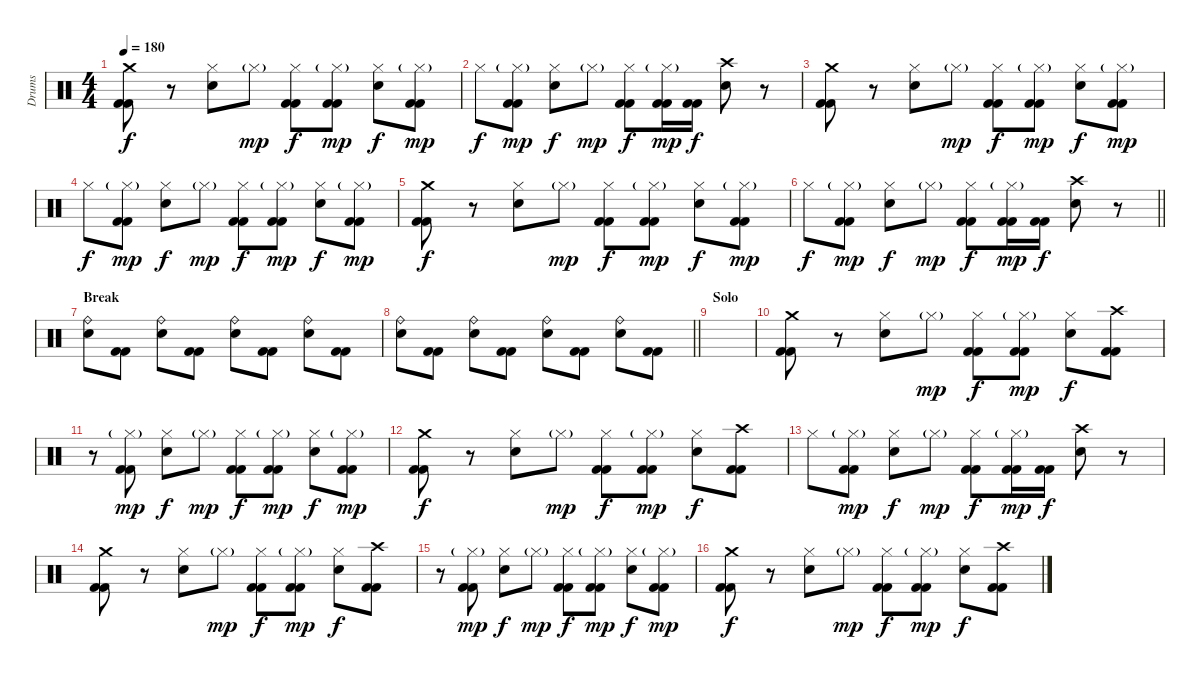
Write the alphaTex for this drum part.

\track ("Drums" "Drums") {instrument percussion}
\staff {score}
\articulation defaults
\ts (4 4)
\tempo 180
\clef neutral
\ks c
("Crash medium (hit)" "Kick (hit) 2" "Kick (hit) 2").8{dy f} r.8 ("Hi-Hat (closed)" "Snare (hit) 2").8 "Hi-Hat (closed)"{g}.8{dy mp} ("Hi-Hat (closed)" "Kick (hit) 2" "Kick (hit) 2").8{dy f} ("Hi-Hat (closed)"{g} "Kick (hit) 2" "Kick (hit) 2").8{dy mp} ("Hi-Hat (closed)" "Snare (hit) 2").8{dy f} ("Hi-Hat (closed)"{g} "Kick (hit) 2" "Kick (hit) 2").8{dy mp} |
"Hi-Hat (closed)".8{dy f} ("Hi-Hat (closed)"{g} "Kick (hit) 2" "Kick (hit) 2").8{dy mp} ("Hi-Hat (closed)" "Snare (hit) 2").8{dy f} "Hi-Hat (closed)"{g}.8{dy mp} ("Hi-Hat (closed)" "Kick (hit) 2" "Kick (hit) 2").8{dy f} ("Hi-Hat (closed)"{g} "Kick (hit) 2" "Kick (hit) 2").16{dy mp} ("Kick (hit) 2" "Kick (hit) 2").16{dy f} ("Crash high (hit)" "Snare (hit) 2").8 r.8 |
("Crash medium (hit)" "Kick (hit) 2" "Kick (hit) 2").8 r.8 ("Hi-Hat (closed)" "Snare (hit) 2").8 "Hi-Hat (closed)"{g}.8{dy mp} ("Hi-Hat (closed)" "Kick (hit) 2" "Kick (hit) 2").8{dy f} ("Hi-Hat (closed)"{g} "Kick (hit) 2" "Kick (hit) 2").8{dy mp} ("Hi-Hat (closed)" "Snare (hit) 2").8{dy f} ("Hi-Hat (closed)"{g} "Kick (hit) 2" "Kick (hit) 2").8{dy mp} |
"Hi-Hat (closed)".8{dy f} ("Hi-Hat (closed)"{g} "Kick (hit) 2" "Kick (hit) 2").8{dy mp} ("Hi-Hat (closed)" "Snare (hit) 2").8{dy f} "Hi-Hat (closed)"{g}.8{dy mp} ("Hi-Hat (closed)" "Kick (hit) 2" "Kick (hit) 2").8{dy f} ("Hi-Hat (closed)"{g} "Kick (hit) 2" "Kick (hit) 2").8{dy mp} ("Hi-Hat (closed)" "Snare (hit) 2").8{dy f} ("Hi-Hat (closed)"{g} "Kick (hit) 2" "Kick (hit) 2").8{dy mp} |
("Crash medium (hit)" "Kick (hit) 2" "Kick (hit) 2").8{dy f} r.8 ("Hi-Hat (closed)" "Snare (hit) 2").8 "Hi-Hat (closed)"{g}.8{dy mp} ("Hi-Hat (closed)" "Kick (hit) 2" "Kick (hit) 2").8{dy f} ("Hi-Hat (closed)"{g} "Kick (hit) 2" "Kick (hit) 2").8{dy mp} ("Hi-Hat (closed)" "Snare (hit) 2").8{dy f} ("Hi-Hat (closed)"{g} "Kick (hit) 2" "Kick (hit) 2").8{dy mp} |
\barLineRight lightlight "Hi-Hat (closed)".8{dy f}
("Hi-Hat (closed)"{g} "Kick (hit) 2" "Kick (hit) 2").8{dy mp} ("Hi-Hat (closed)" "Snare (hit) 2").8{dy f} "Hi-Hat (closed)"{g}.8{dy mp} ("Hi-Hat (closed)" "Kick (hit) 2" "Kick (hit) 2").8{dy f} ("Hi-Hat (closed)"{g} "Kick (hit) 2" "Kick (hit) 2").16{dy mp} ("Kick (hit) 2" "Kick (hit) 2").16{dy f} ("Crash high (hit)" "Snare (hit) 2").8 r.8 |
\section ("" "Break")
("Ride (bell)" "Snare (hit) 2").8 ("Kick (hit) 2" "Kick (hit) 2").8 ("Ride (bell)" "Snare (hit) 2").8 ("Kick (hit) 2" "Kick (hit) 2").8 ("Ride (bell)" "Snare (hit) 2").8 ("Kick (hit) 2" "Kick (hit) 2").8 ("Ride (bell)" "Snare (hit) 2").8 ("Kick (hit) 2" "Kick (hit) 2").8 |
\barLineRight lightlight
("Ride (bell)" "Snare (hit) 2").8 ("Kick (hit) 2" "Kick (hit) 2").8 ("Ride (bell)" "Snare (hit) 2").8 ("Kick (hit) 2" "Kick (hit) 2").8 ("Ride (bell)" "Snare (hit) 2").8 ("Kick (hit) 2" "Kick (hit) 2").8 ("Ride (bell)" "Snare (hit) 2").8 ("Kick (hit) 2" "Kick (hit) 2").8 |
\section ("" "Solo")
|
("Crash medium (hit)" "Kick (hit) 2" "Kick (hit) 2").8 r.8 ("Hi-Hat (closed)" "Snare (hit) 2").8 "Hi-Hat (closed)"{g}.8{dy mp} ("Hi-Hat (closed)" "Kick (hit) 2" "Kick (hit) 2").8{dy f} ("Hi-Hat (closed)"{g} "Kick (hit) 2" "Kick (hit) 2").8{dy mp} ("Hi-Hat (closed)" "Snare (hit) 2").8{dy f} ("Crash high (hit)" "Kick (hit) 2" "Kick (hit) 2").8 |
r.8 ("Hi-Hat (closed)"{g} "Kick (hit) 2" "Kick (hit) 2").8{dy mp} ("Hi-Hat (closed)" "Snare (hit) 2").8{dy f} "Hi-Hat (closed)"{g}.8{dy mp} ("Hi-Hat (closed)" "Kick (hit) 2" "Kick (hit) 2").8{dy f} ("Hi-Hat (closed)"{g} "Kick (hit) 2" "Kick (hit) 2").8{dy mp} ("Hi-Hat (closed)" "Snare (hit) 2").8{dy f} ("Hi-Hat (closed)"{g} "Kick (hit) 2" "Kick (hit) 2").8{dy mp} |
("Crash medium (hit)" "Kick (hit) 2" "Kick (hit) 2").8{dy f} r.8 ("Hi-Hat (closed)" "Snare (hit) 2").8 "Hi-Hat (closed)"{g}.8{dy mp} ("Hi-Hat (closed)" "Kick (hit) 2" "Kick (hit) 2").8{dy f} ("Hi-Hat (closed)"{g} "Kick (hit) 2" "Kick (hit) 2").8{dy mp} ("Hi-Hat (closed)" "Snare (hit) 2").8{dy f} ("Crash high (hit)" "Kick (hit) 2" "Kick (hit) 2").8 |
"Hi-Hat (closed)".8 ("Hi-Hat (closed)"{g} "Kick (hit) 2" "Kick (hit) 2").8{dy mp} ("Hi-Hat (closed)" "Snare (hit) 2").8{dy f} "Hi-Hat (closed)"{g}.8{dy mp} ("Hi-Hat (closed)" "Kick (hit) 2" "Kick (hit) 2").8{dy f} ("Hi-Hat (closed)"{g} "Kick (hit) 2" "Kick (hit) 2").16{dy mp} ("Kick (hit) 2" "Kick (hit) 2").16{dy f} ("Crash high (hit)" "Snare (hit) 2").8 r.8 |
("Crash medium (hit)" "Kick (hit) 2" "Kick (hit) 2").8 r.8 ("Hi-Hat (closed)" "Snare (hit) 2").8 "Hi-Hat (closed)"{g}.8{dy mp} ("Hi-Hat (closed)" "Kick (hit) 2" "Kick (hit) 2").8{dy f} ("Hi-Hat (closed)"{g} "Kick (hit) 2" "Kick (hit) 2").8{dy mp} ("Hi-Hat (closed)" "Snare (hit) 2").8{dy f} ("Crash high (hit)" "Kick (hit) 2" "Kick (hit) 2").8 |
r.8 ("Hi-Hat (closed)"{g} "Kick (hit) 2" "Kick (hit) 2").8{dy mp} ("Hi-Hat (closed)" "Snare (hit) 2").8{dy f} "Hi-Hat (closed)"{g}.8{dy mp} ("Hi-Hat (closed)" "Kick (hit) 2" "Kick (hit) 2").8{dy f} ("Hi-Hat (closed)"{g} "Kick (hit) 2" "Kick (hit) 2").8{dy mp} ("Hi-Hat (closed)" "Snare (hit) 2").8{dy f} ("Hi-Hat (closed)"{g} "Kick (hit) 2" "Kick (hit) 2").8{dy mp} |
("Crash medium (hit)" "Kick (hit) 2" "Kick (hit) 2").8{dy f} r.8 ("Hi-Hat (closed)" "Snare (hit) 2").8 "Hi-Hat (closed)"{g}.8{dy mp} ("Hi-Hat (closed)" "Kick (hit) 2" "Kick (hit) 2").8{dy f} ("Hi-Hat (closed)"{g} "Kick (hit) 2" "Kick (hit) 2").8{dy mp} ("Hi-Hat (closed)" "Snare (hit) 2").8{dy f} ("Crash high (hit)" "Kick (hit) 2" "Kick (hit) 2").8
